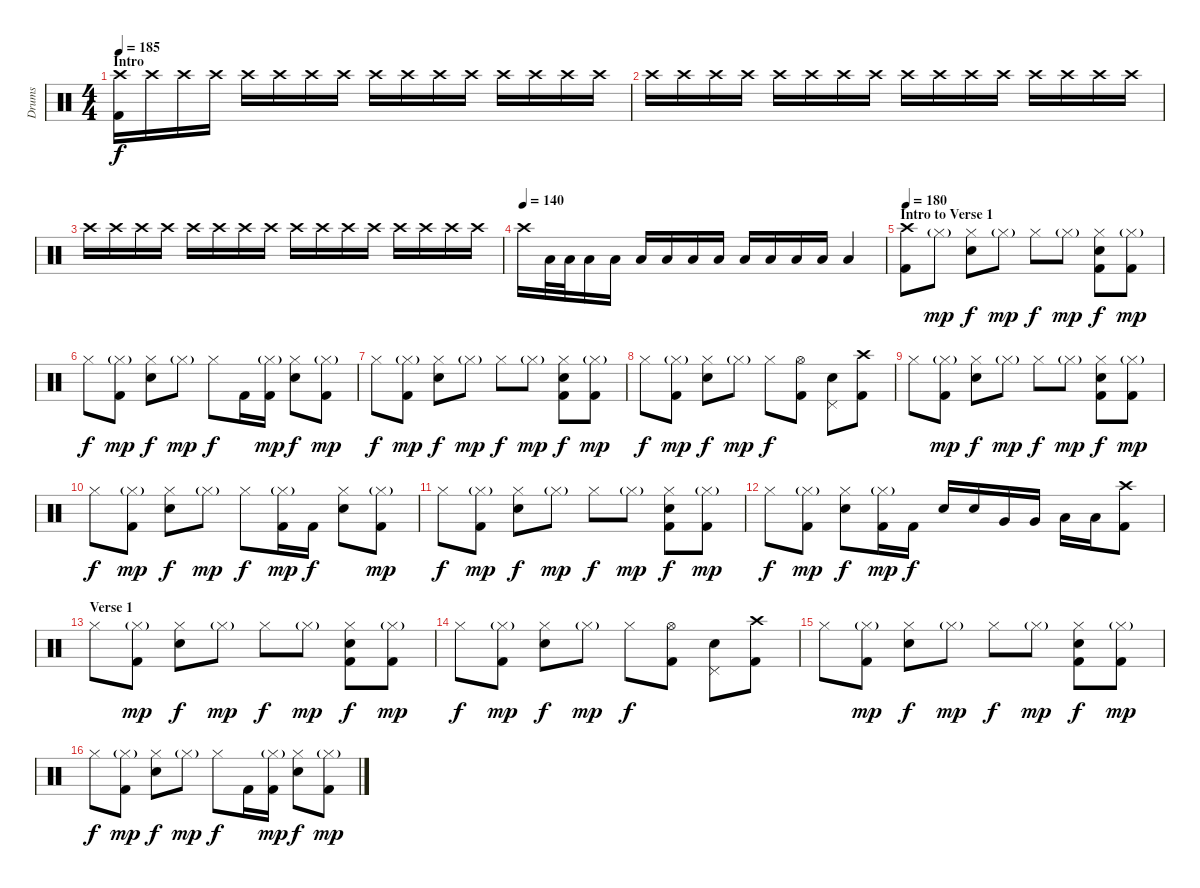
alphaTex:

\track ("Drums" "Drums") {instrument percussion}
\staff {score}
\articulation defaults
\ts (4 4)
\section ("" "Intro")
\tempo 185
\tempo 125
\tempo 185
\clef neutral
\ks c
("Crash high (hit)" "Kick (hit) 2").16{dy f} "Crash high (hit)".16 "Crash high (hit)".16 "Crash high (hit)".16 "Crash high (hit)".16 "Crash high (hit)".16 "Crash high (hit)".16 "Crash high (hit)".16 "Crash high (hit)".16 "Crash high (hit)".16 "Crash high (hit)".16 "Crash high (hit)".16 "Crash high (hit)".16 "Crash high (hit)".16 "Crash high (hit)".16 "Crash high (hit)".16 |
"Crash high (hit)".16 "Crash high (hit)".16 "Crash high (hit)".16 "Crash high (hit)".16 "Crash high (hit)".16 "Crash high (hit)".16 "Crash high (hit)".16 "Crash high (hit)".16 "Crash high (hit)".16 "Crash high (hit)".16 "Crash high (hit)".16 "Crash high (hit)".16 "Crash high (hit)".16 "Crash high (hit)".16 "Crash high (hit)".16 "Crash high (hit)".16 |
"Crash high (hit)".16 "Crash high (hit)".16 "Crash high (hit)".16 "Crash high (hit)".16 "Crash high (hit)".16 "Crash high (hit)".16 "Crash high (hit)".16 "Crash high (hit)".16 "Crash high (hit)".16 "Crash high (hit)".16 "Crash high (hit)".16 "Crash high (hit)".16 "Crash high (hit)".16 "Crash high (hit)".16 "Crash high (hit)".16 "Crash high (hit)".16 |
\tempo (140)
"Crash high (hit)".16 "Low Tom (hit)".32 "Low Tom (hit)".32 "Low Tom (hit)".16 "Low Tom (hit)".16 "Low Tom (hit)".16 "Low Floor Tom (hit)".16 "Low Floor Tom (hit)".16 "Low Floor Tom (hit)".16 "Low Floor Tom (hit)".16 "Low Floor Tom (hit)".16 "Low Floor Tom (hit)".16 "Low Floor Tom (hit)".16 "Low Floor Tom (hit)".4 |
\section ("" "Intro to Verse 1")
\tempo 180
("Crash high (hit)" "Kick (hit) 2").8 "Hi-Hat (closed)"{g}.8{dy mp} ("Hi-Hat (closed)" "Snare (hit) 2").8{dy f} "Hi-Hat (closed)"{g}.8{dy mp} "Hi-Hat (closed)".8{dy f} "Hi-Hat (closed)"{g}.8{dy mp} ("Hi-Hat (closed)" "Snare (hit) 2" "Kick (hit) 2").8{dy f} ("Hi-Hat (closed)"{g} "Kick (hit) 2").8{dy mp} |
"Hi-Hat (closed)".8{dy f} ("Hi-Hat (closed)"{g} "Kick (hit) 2").8{dy mp} ("Hi-Hat (closed)" "Snare (hit) 2").8{dy f} "Hi-Hat (closed)"{g}.8{dy mp} "Hi-Hat (closed)".8{dy f} "Kick (hit) 2".16 ("Hi-Hat (closed)"{g} "Kick (hit) 2").16{dy mp} ("Hi-Hat (closed)" "Snare (hit) 2").8{dy f} ("Hi-Hat (closed)"{g} "Kick (hit) 2").8{dy mp} |
"Hi-Hat (closed)".8{dy f} ("Hi-Hat (closed)"{g} "Kick (hit) 2").8{dy mp} ("Hi-Hat (closed)" "Snare (hit) 2").8{dy f} "Hi-Hat (closed)"{g}.8{dy mp} "Hi-Hat (closed)".8{dy f} "Hi-Hat (closed)"{g}.8{dy mp} ("Hi-Hat (closed)" "Snare (hit) 2" "Kick (hit) 2").8{dy f} ("Hi-Hat (closed)"{g} "Kick (hit) 2").8{dy mp} |
"Hi-Hat (closed)".8{dy f} ("Hi-Hat (closed)"{g} "Kick (hit) 2").8{dy mp} ("Hi-Hat (closed)" "Snare (hit) 2").8{dy f} "Hi-Hat (closed)"{g}.8{dy mp} "Hi-Hat (closed)".8{dy f} ("Hi-Hat (open)" "Kick (hit) 2").8 ("Pedal Hi-Hat (hit)" "Snare (hit) 2").8 ("Crash high (hit)" "Kick (hit) 2").8 |
"Hi-Hat (closed)".8 ("Hi-Hat (closed)"{g} "Kick (hit) 2").8{dy mp} ("Hi-Hat (closed)" "Snare (hit) 2").8{dy f} "Hi-Hat (closed)"{g}.8{dy mp} "Hi-Hat (closed)".8{dy f} "Hi-Hat (closed)"{g}.8{dy mp} ("Hi-Hat (closed)" "Snare (hit) 2" "Kick (hit) 2").8{dy f} ("Hi-Hat (closed)"{g} "Kick (hit) 2").8{dy mp} |
"Hi-Hat (closed)".8{dy f} ("Hi-Hat (closed)"{g} "Kick (hit) 2").8{dy mp} ("Hi-Hat (closed)" "Snare (hit) 2").8{dy f} "Hi-Hat (closed)"{g}.8{dy mp} "Hi-Hat (closed)".8{dy f} ("Hi-Hat (closed)"{g} "Kick (hit) 2").16{dy mp} "Kick (hit) 2".16{dy f} ("Hi-Hat (closed)" "Snare (hit) 2").8 ("Hi-Hat (closed)"{g} "Kick (hit) 2").8{dy mp} |
"Hi-Hat (closed)".8{dy f} ("Hi-Hat (closed)"{g} "Kick (hit) 2").8{dy mp} ("Hi-Hat (closed)" "Snare (hit) 2").8{dy f} "Hi-Hat (closed)"{g}.8{dy mp} "Hi-Hat (closed)".8{dy f} "Hi-Hat (closed)"{g}.8{dy mp} ("Hi-Hat (closed)" "Snare (hit) 2" "Kick (hit) 2").8{dy f} ("Hi-Hat (closed)"{g} "Kick (hit) 2").8{dy mp} |
"Hi-Hat (closed)".8{dy f} ("Hi-Hat (closed)"{g} "Kick (hit) 2").8{dy mp} ("Hi-Hat (closed)" "Snare (hit) 2").8{dy f} ("Hi-Hat (closed)"{g} "Kick (hit) 2").16{dy mp} "Kick (hit) 2".16{dy f} "Snare (hit) 2".16 "Snare (hit) 2".16 "Very Low Tom (hit)".16 "Very Low Tom (hit)".16 "Low Floor Tom (hit)".16 "Low Floor Tom (hit)".16 ("Crash high (hit)" "Kick (hit) 2").8 |
\section ("" "Verse 1")
"Hi-Hat (closed)".8 ("Hi-Hat (closed)"{g} "Kick (hit) 2").8{dy mp} ("Hi-Hat (closed)" "Snare (hit) 2").8{dy f} "Hi-Hat (closed)"{g}.8{dy mp} "Hi-Hat (closed)".8{dy f} "Hi-Hat (closed)"{g}.8{dy mp} ("Hi-Hat (closed)" "Snare (hit) 2" "Kick (hit) 2").8{dy f} ("Hi-Hat (closed)"{g} "Kick (hit) 2").8{dy mp} |
"Hi-Hat (closed)".8{dy f} ("Hi-Hat (closed)"{g} "Kick (hit) 2").8{dy mp} ("Hi-Hat (closed)" "Snare (hit) 2").8{dy f} "Hi-Hat (closed)"{g}.8{dy mp} "Hi-Hat (closed)".8{dy f} ("Hi-Hat (open)" "Kick (hit) 2").8 ("Pedal Hi-Hat (hit)" "Snare (hit) 2").8 ("Crash high (hit)" "Kick (hit) 2").8 |
"Hi-Hat (closed)".8 ("Hi-Hat (closed)"{g} "Kick (hit) 2").8{dy mp} ("Hi-Hat (closed)" "Snare (hit) 2").8{dy f} "Hi-Hat (closed)"{g}.8{dy mp} "Hi-Hat (closed)".8{dy f} "Hi-Hat (closed)"{g}.8{dy mp} ("Hi-Hat (closed)" "Snare (hit) 2" "Kick (hit) 2").8{dy f} ("Hi-Hat (closed)"{g} "Kick (hit) 2").8{dy mp} |
"Hi-Hat (closed)".8{dy f} ("Hi-Hat (closed)"{g} "Kick (hit) 2").8{dy mp} ("Hi-Hat (closed)" "Snare (hit) 2").8{dy f} "Hi-Hat (closed)"{g}.8{dy mp} "Hi-Hat (closed)".8{dy f} "Kick (hit) 2".16 ("Hi-Hat (closed)"{g} "Kick (hit) 2").16{dy mp} ("Hi-Hat (closed)" "Snare (hit) 2").8{dy f} ("Hi-Hat (closed)"{g} "Kick (hit) 2").8{dy mp}
